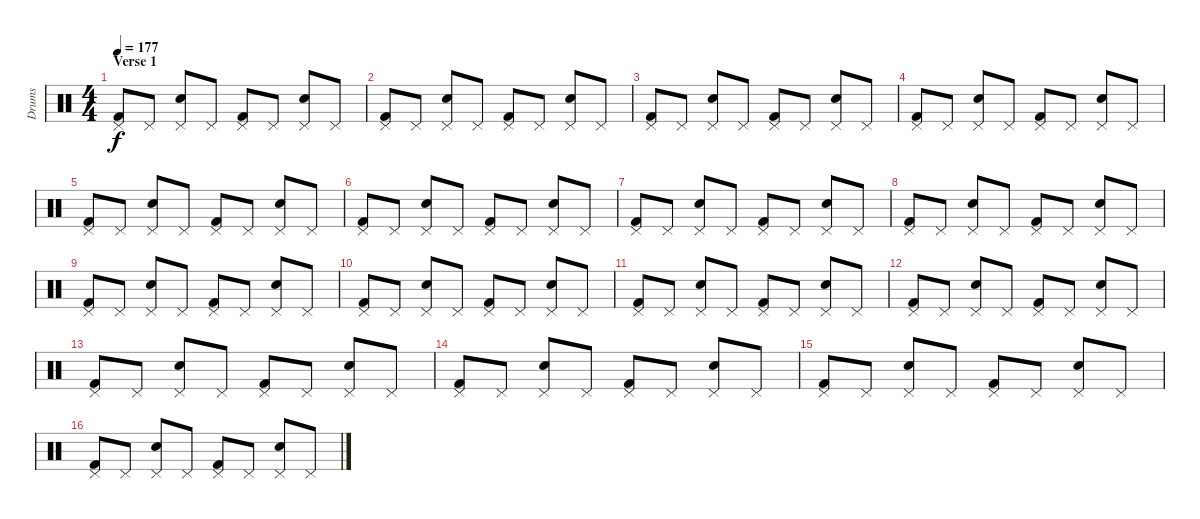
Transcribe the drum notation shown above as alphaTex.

\track ("Drums" "Drums") {instrument percussion}
\staff {score}
\articulation defaults
\ts (4 4)
\section ("" "Verse 1")
\tempo 177
\clef neutral
\ks c
("Pedal Hi-Hat (hit)" "Kick (hit) 2").8{dy f} "Pedal Hi-Hat (hit)".8 ("Pedal Hi-Hat (hit)" "Electric Snare (hit)").8 "Pedal Hi-Hat (hit)".8 ("Pedal Hi-Hat (hit)" "Kick (hit) 2").8 "Pedal Hi-Hat (hit)".8 ("Pedal Hi-Hat (hit)" "Electric Snare (hit)").8 "Pedal Hi-Hat (hit)".8 |
("Pedal Hi-Hat (hit)" "Kick (hit) 2").8 "Pedal Hi-Hat (hit)".8 ("Pedal Hi-Hat (hit)" "Electric Snare (hit)").8 "Pedal Hi-Hat (hit)".8 ("Pedal Hi-Hat (hit)" "Kick (hit) 2").8 "Pedal Hi-Hat (hit)".8 ("Pedal Hi-Hat (hit)" "Electric Snare (hit)").8 "Pedal Hi-Hat (hit)".8 |
("Pedal Hi-Hat (hit)" "Kick (hit) 2").8 "Pedal Hi-Hat (hit)".8 ("Pedal Hi-Hat (hit)" "Electric Snare (hit)").8 "Pedal Hi-Hat (hit)".8 ("Pedal Hi-Hat (hit)" "Kick (hit) 2").8 "Pedal Hi-Hat (hit)".8 ("Pedal Hi-Hat (hit)" "Electric Snare (hit)").8 "Pedal Hi-Hat (hit)".8 |
("Pedal Hi-Hat (hit)" "Kick (hit) 2").8 "Pedal Hi-Hat (hit)".8 ("Pedal Hi-Hat (hit)" "Electric Snare (hit)").8 "Pedal Hi-Hat (hit)".8 ("Pedal Hi-Hat (hit)" "Kick (hit) 2").8 "Pedal Hi-Hat (hit)".8 ("Pedal Hi-Hat (hit)" "Electric Snare (hit)").8 "Pedal Hi-Hat (hit)".8 |
("Pedal Hi-Hat (hit)" "Kick (hit) 2").8 "Pedal Hi-Hat (hit)".8 ("Pedal Hi-Hat (hit)" "Electric Snare (hit)").8 "Pedal Hi-Hat (hit)".8 ("Pedal Hi-Hat (hit)" "Kick (hit) 2").8 "Pedal Hi-Hat (hit)".8 ("Pedal Hi-Hat (hit)" "Electric Snare (hit)").8 "Pedal Hi-Hat (hit)".8 |
("Pedal Hi-Hat (hit)" "Kick (hit) 2").8 "Pedal Hi-Hat (hit)".8 ("Pedal Hi-Hat (hit)" "Electric Snare (hit)").8 "Pedal Hi-Hat (hit)".8 ("Pedal Hi-Hat (hit)" "Kick (hit) 2").8 "Pedal Hi-Hat (hit)".8 ("Pedal Hi-Hat (hit)" "Electric Snare (hit)").8 "Pedal Hi-Hat (hit)".8 |
("Pedal Hi-Hat (hit)" "Kick (hit) 2").8 "Pedal Hi-Hat (hit)".8 ("Pedal Hi-Hat (hit)" "Electric Snare (hit)").8 "Pedal Hi-Hat (hit)".8 ("Pedal Hi-Hat (hit)" "Kick (hit) 2").8 "Pedal Hi-Hat (hit)".8 ("Pedal Hi-Hat (hit)" "Electric Snare (hit)").8 "Pedal Hi-Hat (hit)".8 |
("Pedal Hi-Hat (hit)" "Kick (hit) 2").8 "Pedal Hi-Hat (hit)".8 ("Pedal Hi-Hat (hit)" "Electric Snare (hit)").8 "Pedal Hi-Hat (hit)".8 ("Pedal Hi-Hat (hit)" "Kick (hit) 2").8 "Pedal Hi-Hat (hit)".8 ("Pedal Hi-Hat (hit)" "Electric Snare (hit)").8 "Pedal Hi-Hat (hit)".8 |
("Pedal Hi-Hat (hit)" "Kick (hit) 2").8 "Pedal Hi-Hat (hit)".8 ("Pedal Hi-Hat (hit)" "Electric Snare (hit)").8 "Pedal Hi-Hat (hit)".8 ("Pedal Hi-Hat (hit)" "Kick (hit) 2").8 "Pedal Hi-Hat (hit)".8 ("Pedal Hi-Hat (hit)" "Electric Snare (hit)").8 "Pedal Hi-Hat (hit)".8 |
("Pedal Hi-Hat (hit)" "Kick (hit) 2").8 "Pedal Hi-Hat (hit)".8 ("Pedal Hi-Hat (hit)" "Electric Snare (hit)").8 "Pedal Hi-Hat (hit)".8 ("Pedal Hi-Hat (hit)" "Kick (hit) 2").8 "Pedal Hi-Hat (hit)".8 ("Pedal Hi-Hat (hit)" "Electric Snare (hit)").8 "Pedal Hi-Hat (hit)".8 |
("Pedal Hi-Hat (hit)" "Kick (hit) 2").8 "Pedal Hi-Hat (hit)".8 ("Pedal Hi-Hat (hit)" "Electric Snare (hit)").8 "Pedal Hi-Hat (hit)".8 ("Pedal Hi-Hat (hit)" "Kick (hit) 2").8 "Pedal Hi-Hat (hit)".8 ("Pedal Hi-Hat (hit)" "Electric Snare (hit)").8 "Pedal Hi-Hat (hit)".8 |
("Pedal Hi-Hat (hit)" "Kick (hit) 2").8 "Pedal Hi-Hat (hit)".8 ("Pedal Hi-Hat (hit)" "Electric Snare (hit)").8 "Pedal Hi-Hat (hit)".8 ("Pedal Hi-Hat (hit)" "Kick (hit) 2").8 "Pedal Hi-Hat (hit)".8 ("Pedal Hi-Hat (hit)" "Electric Snare (hit)").8 "Pedal Hi-Hat (hit)".8 |
("Pedal Hi-Hat (hit)" "Kick (hit) 2").8 "Pedal Hi-Hat (hit)".8 ("Pedal Hi-Hat (hit)" "Electric Snare (hit)").8 "Pedal Hi-Hat (hit)".8 ("Pedal Hi-Hat (hit)" "Kick (hit) 2").8 "Pedal Hi-Hat (hit)".8 ("Pedal Hi-Hat (hit)" "Electric Snare (hit)").8 "Pedal Hi-Hat (hit)".8 |
("Pedal Hi-Hat (hit)" "Kick (hit) 2").8 "Pedal Hi-Hat (hit)".8 ("Pedal Hi-Hat (hit)" "Electric Snare (hit)").8 "Pedal Hi-Hat (hit)".8 ("Pedal Hi-Hat (hit)" "Kick (hit) 2").8 "Pedal Hi-Hat (hit)".8 ("Pedal Hi-Hat (hit)" "Electric Snare (hit)").8 "Pedal Hi-Hat (hit)".8 |
("Pedal Hi-Hat (hit)" "Kick (hit) 2").8 "Pedal Hi-Hat (hit)".8 ("Pedal Hi-Hat (hit)" "Electric Snare (hit)").8 "Pedal Hi-Hat (hit)".8 ("Pedal Hi-Hat (hit)" "Kick (hit) 2").8 "Pedal Hi-Hat (hit)".8 ("Pedal Hi-Hat (hit)" "Electric Snare (hit)").8 "Pedal Hi-Hat (hit)".8 |
("Pedal Hi-Hat (hit)" "Kick (hit) 2").8 "Pedal Hi-Hat (hit)".8 ("Pedal Hi-Hat (hit)" "Electric Snare (hit)").8 "Pedal Hi-Hat (hit)".8 ("Pedal Hi-Hat (hit)" "Kick (hit) 2").8 "Pedal Hi-Hat (hit)".8 ("Pedal Hi-Hat (hit)" "Electric Snare (hit)").8 "Pedal Hi-Hat (hit)".8
